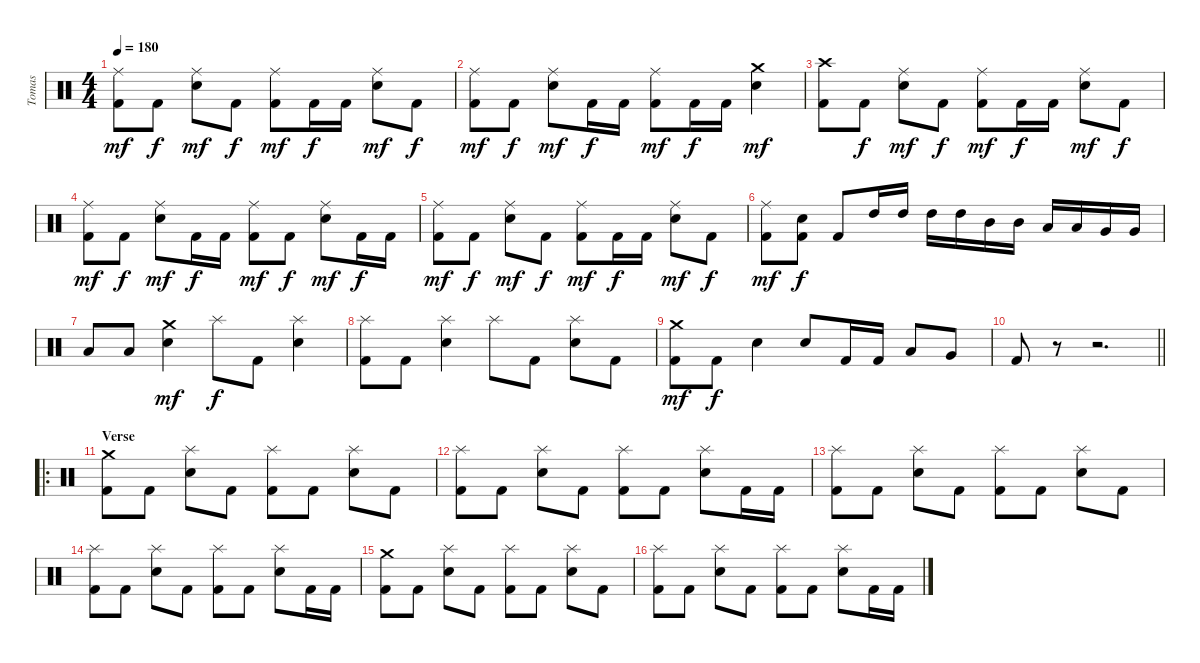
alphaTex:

\track ("Tomas" "Tomas") {instrument percussion}
\staff {score}
\articulation defaults
\ts (4 4)
\tempo 180
\clef neutral
\ks c
("Kick (hit) 2" "Ride (middle)").8{dy mf} "Kick (hit) 2".8{dy f} ("Electric Snare (hit)" "Ride (middle)").8{dy mf} "Kick (hit) 2".8{dy f} ("Kick (hit) 2" "Ride (middle)").8{dy mf} "Kick (hit) 2".16{dy f} "Kick (hit) 2".16 ("Electric Snare (hit)" "Ride (middle)").8{dy mf} "Kick (hit) 2".8{dy f} |
("Kick (hit) 2" "Ride (middle)").8{dy mf} "Kick (hit) 2".8{dy f} ("Electric Snare (hit)" "Ride (middle)").8{dy mf} "Kick (hit) 2".16{dy f} "Kick (hit) 2".16 ("Kick (hit) 2" "Ride (middle)").8{dy mf} "Kick (hit) 2".16{dy f} "Kick (hit) 2".16 ("Electric Snare (hit)" "Crash medium (hit)").4{dy mf} |
("Kick (hit) 2" "Crash high (hit)").8 "Kick (hit) 2".8{dy f} ("Electric Snare (hit)" "Ride (middle)").8{dy mf} "Kick (hit) 2".8{dy f} ("Kick (hit) 2" "Ride (middle)").8{dy mf} "Kick (hit) 2".16{dy f} "Kick (hit) 2".16 ("Electric Snare (hit)" "Ride (middle)").8{dy mf} "Kick (hit) 2".8{dy f} |
("Kick (hit) 2" "Ride (middle)").8{dy mf} "Kick (hit) 2".8{dy f} ("Electric Snare (hit)" "Ride (middle)").8{dy mf} "Kick (hit) 2".16{dy f} "Kick (hit) 2".16 ("Kick (hit) 2" "Ride (middle)").8{dy mf} "Kick (hit) 2".8{dy f} ("Electric Snare (hit)" "Ride (middle)").8{dy mf} "Kick (hit) 2".16{dy f} "Kick (hit) 2".16 |
("Kick (hit) 2" "Ride (middle)").8{dy mf} "Kick (hit) 2".8{dy f} ("Electric Snare (hit)" "Ride (middle)").8{dy mf} "Kick (hit) 2".8{dy f} ("Kick (hit) 2" "Ride (middle)").8{dy mf} "Kick (hit) 2".16{dy f} "Kick (hit) 2".16 ("Electric Snare (hit)" "Ride (middle)").8{dy mf} "Kick (hit) 2".8{dy f} |
("Kick (hit) 2" "Ride (middle)").8{dy mf} ("Kick (hit) 2" "Electric Snare (hit)").8{dy f} "Kick (hit) 2".8 "High Tom (hit)".16 "High Tom (hit)".16 "High Tom (hit)".16 "High Tom (hit)".16 "Mid Tom (hit)".16 "Mid Tom (hit)".16 "Low Tom (hit)".16 "Low Tom (hit)".16 "Very Low Tom (hit)".16 "Very Low Tom (hit)".16 |
"Low Floor Tom (hit)".8 "Low Floor Tom (hit)".8 ("Electric Snare (hit)" "Crash medium (hit)").4{dy mf} "Splash (hit)".8{dy f} "Kick (hit) 2".8 ("Electric Snare (hit)" "Splash (hit)").4 |
("Kick (hit) 2" "Splash (hit)").8 "Kick (hit) 2".8 ("Electric Snare (hit)" "Splash (hit)").4 "Splash (hit)".8 "Kick (hit) 2".8 ("Electric Snare (hit)" "Splash (hit)").8 "Kick (hit) 2".8 |
("Kick (hit) 2" "Crash medium (hit)").8{dy mf} "Kick (hit) 2".8{dy f} "Electric Snare (hit)".4 "Electric Snare (hit)".8 "Kick (hit) 2".16 "Kick (hit) 2".16 "Low Tom (hit)".8 "Very Low Tom (hit)".8 |
\barLineRight lightlight "Kick (hit) 2".8
r.8 r.2{d} |
\ro
\section ("" "Verse")
("Kick (hit) 2" "Crash medium (hit)").8 "Kick (hit) 2".8 ("Electric Snare (hit)" "Splash (hit)").8 "Kick (hit) 2".8 ("Kick (hit) 2" "Splash (hit)").8 "Kick (hit) 2".8 ("Electric Snare (hit)" "Splash (hit)").8 "Kick (hit) 2".8 |
("Kick (hit) 2" "Splash (hit)").8 "Kick (hit) 2".8 ("Electric Snare (hit)" "Splash (hit)").8 "Kick (hit) 2".8 ("Kick (hit) 2" "Splash (hit)").8 "Kick (hit) 2".8 ("Electric Snare (hit)" "Splash (hit)").8 "Kick (hit) 2".16 "Kick (hit) 2".16 |
("Kick (hit) 2" "Splash (hit)").8 "Kick (hit) 2".8 ("Electric Snare (hit)" "Splash (hit)").8 "Kick (hit) 2".8 ("Kick (hit) 2" "Splash (hit)").8 "Kick (hit) 2".8 ("Electric Snare (hit)" "Splash (hit)").8 "Kick (hit) 2".8 |
("Kick (hit) 2" "Splash (hit)").8 "Kick (hit) 2".8 ("Electric Snare (hit)" "Splash (hit)").8 "Kick (hit) 2".8 ("Kick (hit) 2" "Splash (hit)").8 "Kick (hit) 2".8 ("Electric Snare (hit)" "Splash (hit)").8 "Kick (hit) 2".16 "Kick (hit) 2".16 |
("Kick (hit) 2" "Crash medium (hit)").8 "Kick (hit) 2".8 ("Electric Snare (hit)" "Splash (hit)").8 "Kick (hit) 2".8 ("Kick (hit) 2" "Splash (hit)").8 "Kick (hit) 2".8 ("Electric Snare (hit)" "Splash (hit)").8 "Kick (hit) 2".8 |
("Kick (hit) 2" "Splash (hit)").8 "Kick (hit) 2".8 ("Electric Snare (hit)" "Splash (hit)").8 "Kick (hit) 2".8 ("Kick (hit) 2" "Splash (hit)").8 "Kick (hit) 2".8 ("Electric Snare (hit)" "Splash (hit)").8 "Kick (hit) 2".16 "Kick (hit) 2".16
